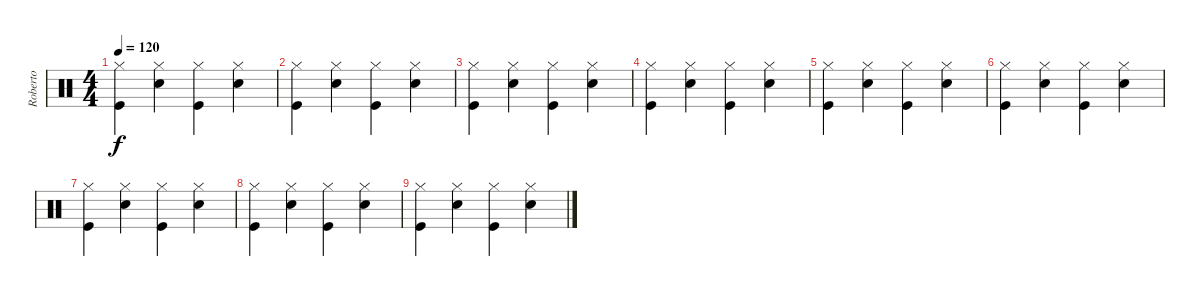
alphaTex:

\track ("Roberto" "Roberto") {instrument percussion}
\staff {score}
\articulation defaults
\ts (4 4)
\tempo 120
\clef neutral
\ks c
("Hi-Hat (closed)" "Kick (hit)").4{dy f} ("Hi-Hat (closed)" "Snare (hit) 2").4 ("Hi-Hat (closed)" "Kick (hit)").4 ("Hi-Hat (closed)" "Snare (hit) 2").4 |
("Hi-Hat (closed)" "Kick (hit)").4 ("Hi-Hat (closed)" "Snare (hit) 2").4 ("Hi-Hat (closed)" "Kick (hit)").4 ("Hi-Hat (closed)" "Snare (hit) 2").4 |
("Hi-Hat (closed)" "Kick (hit)").4 ("Hi-Hat (closed)" "Snare (hit) 2").4 ("Hi-Hat (closed)" "Kick (hit)").4 ("Hi-Hat (closed)" "Snare (hit) 2").4 |
("Hi-Hat (closed)" "Kick (hit)").4 ("Hi-Hat (closed)" "Snare (hit) 2").4 ("Hi-Hat (closed)" "Kick (hit)").4 ("Hi-Hat (closed)" "Snare (hit) 2").4 |
("Hi-Hat (closed)" "Kick (hit)").4 ("Hi-Hat (closed)" "Snare (hit) 2").4 ("Hi-Hat (closed)" "Kick (hit)").4 ("Hi-Hat (closed)" "Snare (hit) 2").4 |
("Hi-Hat (closed)" "Kick (hit)").4 ("Hi-Hat (closed)" "Snare (hit) 2").4 ("Hi-Hat (closed)" "Kick (hit)").4 ("Hi-Hat (closed)" "Snare (hit) 2").4 |
("Hi-Hat (closed)" "Kick (hit)").4 ("Hi-Hat (closed)" "Snare (hit) 2").4 ("Hi-Hat (closed)" "Kick (hit)").4 ("Hi-Hat (closed)" "Snare (hit) 2").4 |
("Hi-Hat (closed)" "Kick (hit)").4 ("Hi-Hat (closed)" "Snare (hit) 2").4 ("Hi-Hat (closed)" "Kick (hit)").4 ("Hi-Hat (closed)" "Snare (hit) 2").4 |
("Hi-Hat (closed)" "Kick (hit)").4 ("Hi-Hat (closed)" "Snare (hit) 2").4 ("Hi-Hat (closed)" "Kick (hit)").4 ("Hi-Hat (closed)" "Snare (hit) 2").4
